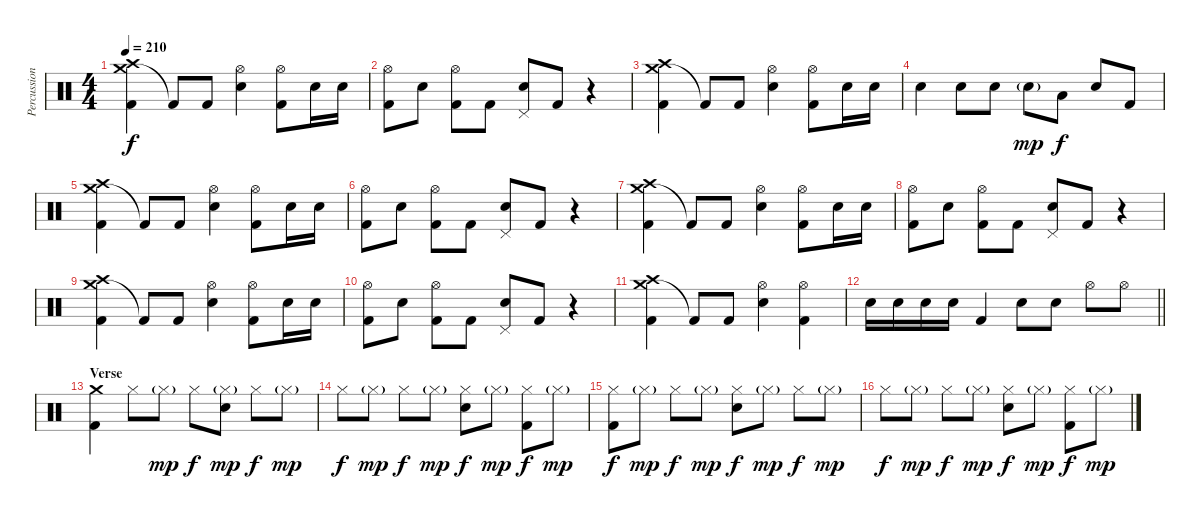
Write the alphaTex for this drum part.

\track ("Percussion" "Percussion") {instrument percussion}
\staff {score}
\articulation defaults
\ts (4 4)
\tempo 210
\clef neutral
\ks c
("Crash medium (hit)" "Crash high (hit)" "Kick (hit) 2").4{dy f} "Kick (hit) 2"{t}.8 "Kick (hit) 2".8 ("Hi-Hat (open)" "Electric Snare (hit)").4 ("Hi-Hat (open)" "Kick (hit) 2").8 "Electric Snare (hit)".16 "Electric Snare (hit)".16 |
("Hi-Hat (open)" "Kick (hit) 2").8 "Electric Snare (hit)".8 ("Hi-Hat (open)" "Kick (hit) 2").8 "Kick (hit) 2".8 ("Pedal Hi-Hat (hit)" "Electric Snare (hit)").8 "Kick (hit) 2".8 r.4 |
("Crash medium (hit)" "Crash high (hit)" "Kick (hit) 2").4 "Kick (hit) 2"{t}.8 "Kick (hit) 2".8 ("Hi-Hat (open)" "Electric Snare (hit)").4 ("Hi-Hat (open)" "Kick (hit) 2").8 "Electric Snare (hit)".16 "Electric Snare (hit)".16 |
"Electric Snare (hit)".4 "Electric Snare (hit)".8 "Electric Snare (hit)".8 "Electric Snare (hit)"{g}.8{dy mp} "Low Tom (hit)".8{dy f} "Electric Snare (hit)".8 "Kick (hit) 2".8 |
("Crash medium (hit)" "Crash high (hit)" "Kick (hit) 2").4 "Kick (hit) 2"{t}.8 "Kick (hit) 2".8 ("Hi-Hat (open)" "Electric Snare (hit)").4 ("Hi-Hat (open)" "Kick (hit) 2").8 "Electric Snare (hit)".16 "Electric Snare (hit)".16 |
("Hi-Hat (open)" "Kick (hit) 2").8 "Electric Snare (hit)".8 ("Hi-Hat (open)" "Kick (hit) 2").8 "Kick (hit) 2".8 ("Pedal Hi-Hat (hit)" "Electric Snare (hit)").8 "Kick (hit) 2".8 r.4 |
("Crash medium (hit)" "Crash high (hit)" "Kick (hit) 2").4 "Kick (hit) 2"{t}.8 "Kick (hit) 2".8 ("Hi-Hat (open)" "Electric Snare (hit)").4 ("Hi-Hat (open)" "Kick (hit) 2").8 "Electric Snare (hit)".16 "Electric Snare (hit)".16 |
("Hi-Hat (open)" "Kick (hit) 2").8 "Electric Snare (hit)".8 ("Hi-Hat (open)" "Kick (hit) 2").8 "Kick (hit) 2".8 ("Pedal Hi-Hat (hit)" "Electric Snare (hit)").8 "Kick (hit) 2".8 r.4 |
("Crash medium (hit)" "Crash high (hit)" "Kick (hit) 2").4 "Kick (hit) 2"{t}.8 "Kick (hit) 2".8 ("Hi-Hat (open)" "Electric Snare (hit)").4 ("Hi-Hat (open)" "Kick (hit) 2").8 "Electric Snare (hit)".16 "Electric Snare (hit)".16 |
("Hi-Hat (open)" "Kick (hit) 2").8 "Electric Snare (hit)".8 ("Hi-Hat (open)" "Kick (hit) 2").8 "Kick (hit) 2".8 ("Pedal Hi-Hat (hit)" "Electric Snare (hit)").8 "Kick (hit) 2".8 r.4 |
("Crash medium (hit)" "Crash high (hit)" "Kick (hit) 2").4 "Kick (hit) 2"{t}.8 "Kick (hit) 2".8 ("Hi-Hat (open)" "Electric Snare (hit)").4 ("Hi-Hat (open)" "Kick (hit) 2").4 |
\barLineRight lightlight "Electric Snare (hit)".16 "Electric Snare (hit)".16 "Electric Snare (hit)".16 "Electric Snare (hit)".16 "Kick (hit) 2".4 "Electric Snare (hit)".8 "Electric Snare (hit)".8 "Hi-Hat (open)".8 "Hi-Hat (open)".8
|
\section ("" "Verse")
("Crash medium (hit)" "Kick (hit) 2").4 "Hi-Hat (closed)".8 "Hi-Hat (closed)"{g}.8{dy mp} "Hi-Hat (closed)".8{dy f} ("Hi-Hat (closed)"{g} "Electric Snare (hit)").8{dy mp} "Hi-Hat (closed)".8{dy f} "Hi-Hat (closed)"{g}.8{dy mp} |
"Hi-Hat (closed)".8{dy f} "Hi-Hat (closed)"{g}.8{dy mp} "Hi-Hat (closed)".8{dy f} "Hi-Hat (closed)"{g}.8{dy mp} ("Hi-Hat (closed)" "Electric Snare (hit)").8{dy f} "Hi-Hat (closed)"{g}.8{dy mp} ("Hi-Hat (closed)" "Kick (hit) 2").8{dy f} "Hi-Hat (closed)"{g}.8{dy mp} |
("Hi-Hat (closed)" "Kick (hit) 2").8{dy f} "Hi-Hat (closed)"{g}.8{dy mp} "Hi-Hat (closed)".8{dy f} "Hi-Hat (closed)"{g}.8{dy mp} ("Hi-Hat (closed)" "Electric Snare (hit)").8{dy f} "Hi-Hat (closed)"{g}.8{dy mp} "Hi-Hat (closed)".8{dy f} "Hi-Hat (closed)"{g}.8{dy mp} |
"Hi-Hat (closed)".8{dy f} "Hi-Hat (closed)"{g}.8{dy mp} "Hi-Hat (closed)".8{dy f} "Hi-Hat (closed)"{g}.8{dy mp} ("Hi-Hat (closed)" "Electric Snare (hit)").8{dy f} "Hi-Hat (closed)"{g}.8{dy mp} ("Hi-Hat (closed)" "Kick (hit) 2").8{dy f} "Hi-Hat (closed)"{g}.8{dy mp}
